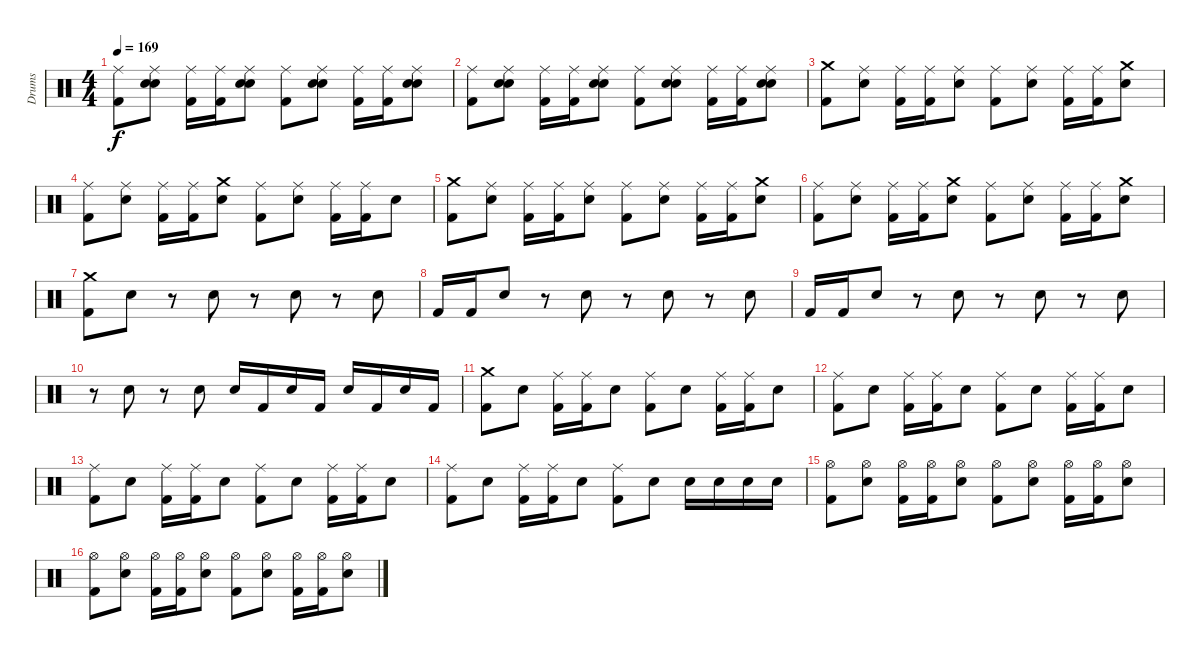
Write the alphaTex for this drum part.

\track ("Drums" "Drums") {instrument percussion}
\staff {score}
\articulation defaults
\ts (4 4)
\tempo 169
\clef neutral
\ks c
("Ride (middle)" "Kick (hit) 2").8{dy f} ("Hand Clap (hit)" "Ride (middle)" "Electric Snare (hit)").8 ("Ride (middle)" "Kick (hit) 2").16 ("Ride (middle)" "Kick (hit) 2").16 ("Hand Clap (hit)" "Ride (middle)" "Electric Snare (hit)").8 ("Ride (middle)" "Kick (hit) 2").8 ("Hand Clap (hit)" "Ride (middle)" "Electric Snare (hit)").8 ("Ride (middle)" "Kick (hit) 2").16 ("Ride (middle)" "Kick (hit) 2").16 ("Hand Clap (hit)" "Ride (middle)" "Electric Snare (hit)").8 |
("Ride (middle)" "Kick (hit) 2").8 ("Hand Clap (hit)" "Ride (middle)" "Electric Snare (hit)").8 ("Ride (middle)" "Kick (hit) 2").16 ("Ride (middle)" "Kick (hit) 2").16 ("Hand Clap (hit)" "Ride (middle)" "Electric Snare (hit)").8 ("Ride (middle)" "Kick (hit) 2").8 ("Hand Clap (hit)" "Ride (middle)" "Electric Snare (hit)").8 ("Ride (middle)" "Kick (hit) 2").16 ("Ride (middle)" "Kick (hit) 2").16 ("Hand Clap (hit)" "Ride (middle)" "Electric Snare (hit)").8 |
("Crash medium (hit)" "Kick (hit) 2").8 ("Ride (middle)" "Electric Snare (hit)").8 ("Ride (middle)" "Kick (hit) 2").16 ("Ride (middle)" "Kick (hit) 2").16 ("Ride (middle)" "Electric Snare (hit)").8 ("Ride (middle)" "Kick (hit) 2").8 ("Ride (middle)" "Electric Snare (hit)").8 ("Ride (middle)" "Kick (hit) 2").16 ("Ride (middle)" "Kick (hit) 2").16 ("Crash medium (hit)" "Electric Snare (hit)").8 |
("Ride (middle)" "Kick (hit) 2").8 ("Ride (middle)" "Electric Snare (hit)").8 ("Ride (middle)" "Kick (hit) 2").16 ("Ride (middle)" "Kick (hit) 2").16 ("Crash medium (hit)" "Electric Snare (hit)").8 ("Ride (middle)" "Kick (hit) 2").8 ("Ride (middle)" "Electric Snare (hit)").8 ("Ride (middle)" "Kick (hit) 2").16 ("Ride (middle)" "Kick (hit) 2").16 "Electric Snare (hit)".8 |
("Crash medium (hit)" "Kick (hit) 2").8 ("Ride (middle)" "Electric Snare (hit)").8 ("Ride (middle)" "Kick (hit) 2").16 ("Ride (middle)" "Kick (hit) 2").16 ("Ride (middle)" "Electric Snare (hit)").8 ("Ride (middle)" "Kick (hit) 2").8 ("Ride (middle)" "Electric Snare (hit)").8 ("Ride (middle)" "Kick (hit) 2").16 ("Ride (middle)" "Kick (hit) 2").16 ("Crash medium (hit)" "Electric Snare (hit)").8 |
("Ride (middle)" "Kick (hit) 2").8 ("Ride (middle)" "Electric Snare (hit)").8 ("Ride (middle)" "Kick (hit) 2").16 ("Ride (middle)" "Kick (hit) 2").16 ("Crash medium (hit)" "Electric Snare (hit)").8 ("Ride (middle)" "Kick (hit) 2").8 ("Ride (middle)" "Electric Snare (hit)").8 ("Ride (middle)" "Kick (hit) 2").16 ("Ride (middle)" "Kick (hit) 2").16 ("Crash medium (hit)" "Electric Snare (hit)").8 |
("Crash medium (hit)" "Kick (hit) 2").8 "Electric Snare (hit)".8 r.8 "Electric Snare (hit)".8 r.8 "Electric Snare (hit)".8 r.8 "Electric Snare (hit)".8 |
"Kick (hit) 2".16 "Kick (hit) 2".16 "Electric Snare (hit)".8 r.8 "Electric Snare (hit)".8 r.8 "Electric Snare (hit)".8 r.8 "Electric Snare (hit)".8 |
"Kick (hit) 2".16 "Kick (hit) 2".16 "Electric Snare (hit)".8 r.8 "Electric Snare (hit)".8 r.8 "Electric Snare (hit)".8 r.8 "Electric Snare (hit)".8 |
r.8 "Electric Snare (hit)".8 r.8 "Electric Snare (hit)".8 "Electric Snare (hit)".16 "Kick (hit) 2".16 "Electric Snare (hit)".16 "Kick (hit) 2".16 "Electric Snare (hit)".16 "Kick (hit) 2".16 "Electric Snare (hit)".16 "Kick (hit) 2".16 |
("Crash medium (hit)" "Kick (hit) 2").8 "Electric Snare (hit)".8 ("Ride (middle)" "Kick (hit) 2").16 ("Ride (middle)" "Kick (hit) 2").16 "Electric Snare (hit)".8 ("Ride (middle)" "Kick (hit) 2").8 "Electric Snare (hit)".8 ("Ride (middle)" "Kick (hit) 2").16 ("Ride (middle)" "Kick (hit) 2").16 "Electric Snare (hit)".8 |
("Ride (middle)" "Kick (hit) 2").8 "Electric Snare (hit)".8 ("Ride (middle)" "Kick (hit) 2").16 ("Ride (middle)" "Kick (hit) 2").16 "Electric Snare (hit)".8 ("Ride (middle)" "Kick (hit) 2").8 "Electric Snare (hit)".8 ("Ride (middle)" "Kick (hit) 2").16 ("Ride (middle)" "Kick (hit) 2").16 "Electric Snare (hit)".8 |
("Ride (middle)" "Kick (hit) 2").8 "Electric Snare (hit)".8 ("Ride (middle)" "Kick (hit) 2").16 ("Ride (middle)" "Kick (hit) 2").16 "Electric Snare (hit)".8 ("Ride (middle)" "Kick (hit) 2").8 "Electric Snare (hit)".8 ("Ride (middle)" "Kick (hit) 2").16 ("Ride (middle)" "Kick (hit) 2").16 "Electric Snare (hit)".8 |
("Ride (middle)" "Kick (hit) 2").8 "Electric Snare (hit)".8 ("Ride (middle)" "Kick (hit) 2").16 ("Ride (middle)" "Kick (hit) 2").16 "Electric Snare (hit)".8 ("Ride (middle)" "Kick (hit) 2").8 "Electric Snare (hit)".8 "Electric Snare (hit)".16 "Electric Snare (hit)".16 "Electric Snare (hit)".16 "Electric Snare (hit)".16 |
("Hi-Hat (open)" "Kick (hit) 2").8 ("Hi-Hat (open)" "Electric Snare (hit)").8 ("Hi-Hat (open)" "Kick (hit) 2").16 ("Hi-Hat (open)" "Kick (hit) 2").16 ("Hi-Hat (open)" "Electric Snare (hit)").8 ("Hi-Hat (open)" "Kick (hit) 2").8 ("Hi-Hat (open)" "Electric Snare (hit)").8 ("Hi-Hat (open)" "Kick (hit) 2").16 ("Hi-Hat (open)" "Kick (hit) 2").16 ("Hi-Hat (open)" "Electric Snare (hit)").8 |
("Hi-Hat (open)" "Kick (hit) 2").8 ("Hi-Hat (open)" "Electric Snare (hit)").8 ("Hi-Hat (open)" "Kick (hit) 2").16 ("Hi-Hat (open)" "Kick (hit) 2").16 ("Hi-Hat (open)" "Electric Snare (hit)").8 ("Hi-Hat (open)" "Kick (hit) 2").8 ("Hi-Hat (open)" "Electric Snare (hit)").8 ("Hi-Hat (open)" "Kick (hit) 2").16 ("Hi-Hat (open)" "Kick (hit) 2").16 ("Hi-Hat (open)" "Electric Snare (hit)").8
